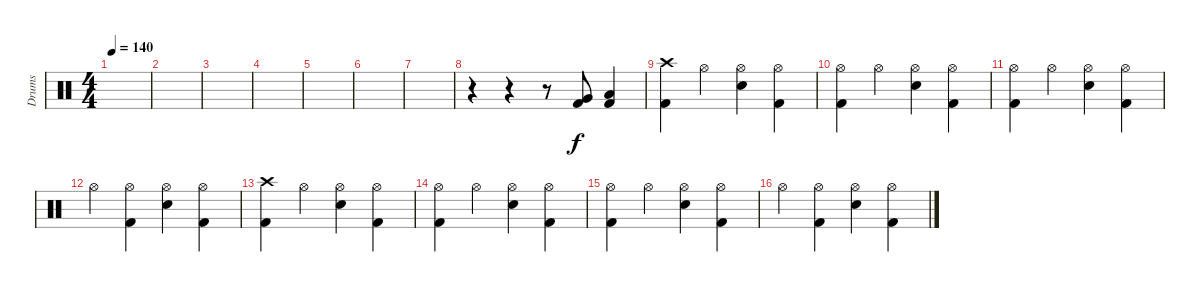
\track ("Drums" "Drums") {instrument percussion}
\staff {score}
\articulation defaults
\ts (4 4)
\tempo 140
\clef neutral
\ks c
|
|
|
|
|
|
|
r.4 r.4 r.8 ("Very Low Tom (hit)" "Kick (hit) 2").8 ("Low Tom (hit)" "Kick (hit) 2").4 |
("Crash high (hit)" "Kick (hit) 2").4 "Hi-Hat (open)".4 ("Hi-Hat (open)" "Electric Snare (hit)").4 ("Hi-Hat (open)" "Kick (hit) 2").4 |
("Hi-Hat (open)" "Kick (hit) 2").4 "Hi-Hat (open)".4 ("Hi-Hat (open)" "Electric Snare (hit)").4 ("Hi-Hat (open)" "Kick (hit) 2").4 |
("Hi-Hat (open)" "Kick (hit) 2").4 "Hi-Hat (open)".4 ("Hi-Hat (open)" "Electric Snare (hit)").4 ("Hi-Hat (open)" "Kick (hit) 2").4 |
"Hi-Hat (open)".4 ("Hi-Hat (open)" "Kick (hit) 2").4 ("Hi-Hat (open)" "Electric Snare (hit)").4 ("Hi-Hat (open)" "Kick (hit) 2").4 |
("Crash high (hit)" "Kick (hit) 2").4 "Hi-Hat (open)".4 ("Hi-Hat (open)" "Electric Snare (hit)").4 ("Hi-Hat (open)" "Kick (hit) 2").4 |
("Hi-Hat (open)" "Kick (hit) 2").4 "Hi-Hat (open)".4 ("Hi-Hat (open)" "Electric Snare (hit)").4 ("Hi-Hat (open)" "Kick (hit) 2").4 |
("Hi-Hat (open)" "Kick (hit) 2").4 "Hi-Hat (open)".4 ("Hi-Hat (open)" "Electric Snare (hit)").4 ("Hi-Hat (open)" "Kick (hit) 2").4 |
"Hi-Hat (open)".4 ("Hi-Hat (open)" "Kick (hit) 2").4 ("Hi-Hat (open)" "Electric Snare (hit)").4 ("Hi-Hat (open)" "Kick (hit) 2").4
